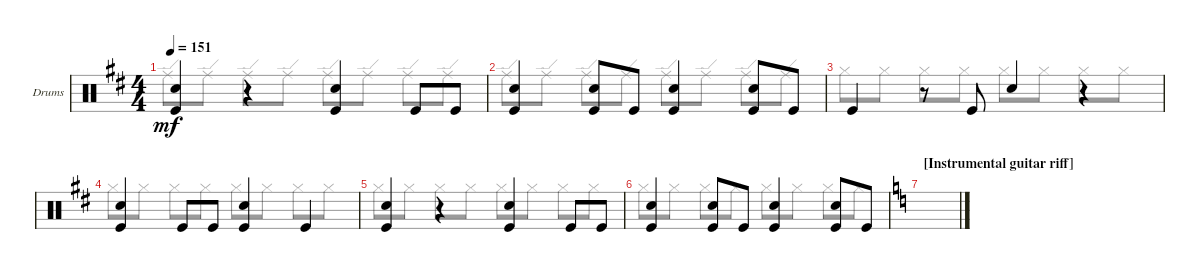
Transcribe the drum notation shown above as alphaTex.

\bracketExtendMode groupsimilarinstruments
\firstSystemTrackNameOrientation horizontal
\otherSystemsTrackNameOrientation horizontal
\track ("Drumkit" "Drums") {instrument percussion}
\staff {score}
\articulation defaults
\voice
\ts (4 4)
\tempo 151
\clef neutral
\ks d
("Kick (hit)" "Snare (hit) 2").4{dy mf} r.4 ("Kick (hit)" "Snare (hit) 2").4 "Kick (hit)".8 "Kick (hit)".8 |
("Kick (hit)" "Snare (hit) 2").4 ("Kick (hit)" "Snare (hit) 2").8 "Kick (hit)".8 ("Kick (hit)" "Snare (hit) 2").4 ("Kick (hit)" "Snare (hit) 2").8 "Kick (hit)".8 |
"Kick (hit)".4 r.8 "Kick (hit)".8 "Snare (hit) 2".4 r.4 |
("Kick (hit)" "Snare (hit) 2").4 "Kick (hit)".8 "Kick (hit)".8 ("Kick (hit)" "Snare (hit) 2").4 "Kick (hit)".4 |
("Kick (hit)" "Snare (hit) 2").4 r.4 ("Kick (hit)" "Snare (hit) 2").4 "Kick (hit)".8 "Kick (hit)".8 |
("Kick (hit)" "Snare (hit) 2").4 ("Kick (hit)" "Snare (hit) 2").8 "Kick (hit)".8 ("Kick (hit)" "Snare (hit) 2").4 ("Kick (hit)" "Snare (hit) 2").8 "Kick (hit)".8 |
\section ("" "[Instrumental guitar riff]")
\ks aminor
|
|
|
|
|
|
|
|
|
\voice
\clef neutral
\ottava regular
\simile none
\ks d "Ride (edge)".8{dy mf} "Ride (edge)".8 "Ride (edge)".8 "Ride (edge)".8 "Ride (edge)".8 "Ride (edge)".8 "Ride (edge)".8 "Ride (edge)".8
|
"Ride (edge)".8 "Ride (edge)".8 "Ride (edge)".8 "Ride (edge)".8 "Ride (edge)".8 "Ride (edge)".8 "Ride (edge)".8 "Ride (edge)".8 |
"Hi-Hat (closed)".8 "Hi-Hat (closed)".8 "Hi-Hat (closed)".8 "Hi-Hat (closed)".8 "Hi-Hat (closed)".8 "Hi-Hat (closed)".8 "Hi-Hat (closed)".8 "Hi-Hat (closed)".8 |
"Hi-Hat (closed)".8 "Hi-Hat (closed)".8 "Hi-Hat (closed)".8 "Hi-Hat (closed)".8 "Hi-Hat (closed)".8 "Hi-Hat (closed)".8 "Hi-Hat (closed)".8 "Hi-Hat (closed)".8 |
"Hi-Hat (closed)".8 "Hi-Hat (closed)".8 "Hi-Hat (closed)".8 "Hi-Hat (closed)".8 "Hi-Hat (closed)".8 "Hi-Hat (closed)".8 "Hi-Hat (closed)".8 "Hi-Hat (closed)".8 |
"Hi-Hat (closed)".8 "Hi-Hat (closed)".8 "Hi-Hat (closed)".8 "Hi-Hat (closed)".8 "Hi-Hat (closed)".8 "Hi-Hat (closed)".8 "Hi-Hat (closed)".8 "Hi-Hat (closed)".8 |
\ks aminor
|
|
|
|
|
|
|
|
|
